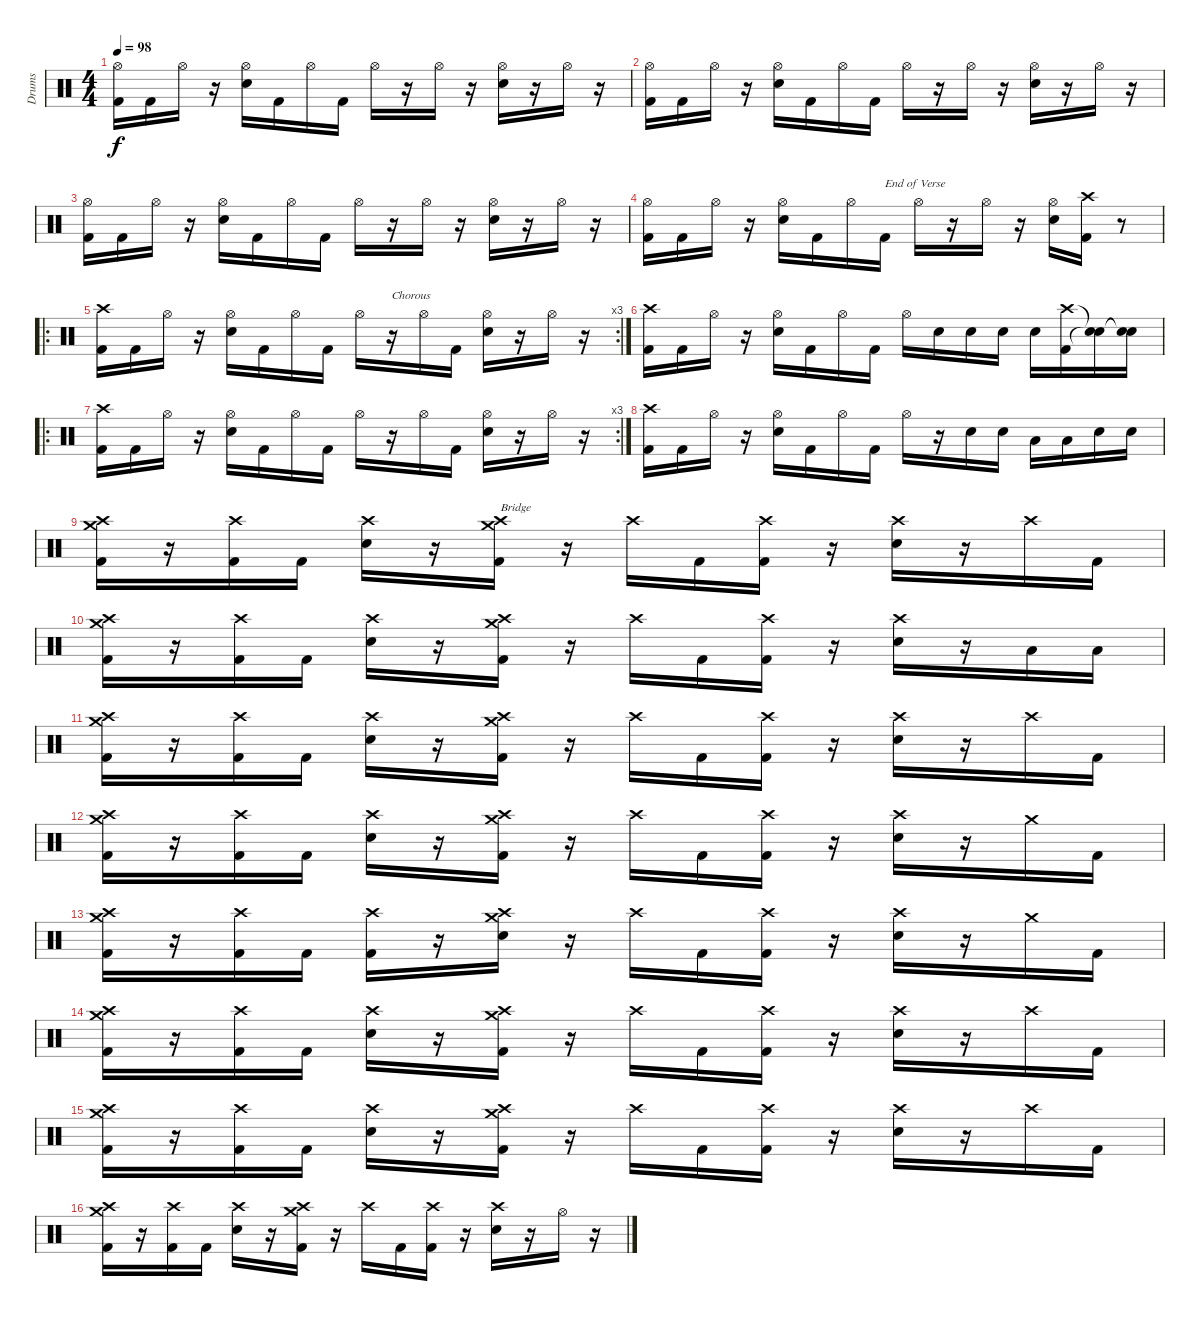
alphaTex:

\track ("Drums" "Drums") {instrument percussion}
\staff {score}
\articulation defaults
\ts (4 4)
\tempo 98
\clef neutral
\ks c
("Hi-Hat (open)" "Kick (hit) 2").16{dy f} "Kick (hit) 2".16 "Hi-Hat (open)".16 r.16 ("Hi-Hat (open)" "Snare (hit) 2").16 "Kick (hit) 2".16 "Hi-Hat (open)".16 "Kick (hit) 2".16 "Hi-Hat (open)".16 r.16 "Hi-Hat (open)".16 r.16 ("Hi-Hat (open)" "Snare (hit) 2").16 r.16 "Hi-Hat (open)".16 r.16 |
("Hi-Hat (open)" "Kick (hit) 2").16 "Kick (hit) 2".16 "Hi-Hat (open)".16 r.16 ("Hi-Hat (open)" "Snare (hit) 2").16 "Kick (hit) 2".16 "Hi-Hat (open)".16 "Kick (hit) 2".16 "Hi-Hat (open)".16 r.16 "Hi-Hat (open)".16 r.16 ("Hi-Hat (open)" "Snare (hit) 2").16 r.16 "Hi-Hat (open)".16 r.16 |
("Hi-Hat (open)" "Kick (hit) 2").16 "Kick (hit) 2".16 "Hi-Hat (open)".16 r.16 ("Hi-Hat (open)" "Snare (hit) 2").16 "Kick (hit) 2".16 "Hi-Hat (open)".16 "Kick (hit) 2".16 "Hi-Hat (open)".16 r.16 "Hi-Hat (open)".16 r.16 ("Hi-Hat (open)" "Snare (hit) 2").16 r.16 "Hi-Hat (open)".16 r.16 |
("Hi-Hat (open)" "Kick (hit) 2").16 "Kick (hit) 2".16 "Hi-Hat (open)".16 r.16 ("Hi-Hat (open)" "Snare (hit) 2").16 "Kick (hit) 2".16 "Hi-Hat (open)".16 "Kick (hit) 2".16{txt "End of Verse"} "Hi-Hat (open)".16 r.16 "Hi-Hat (open)".16 r.16 ("Hi-Hat (open)" "Snare (hit) 2").16 ("Crash high (hit)" "Kick (hit) 2").16 r.8 |
\ro
\rc 3
("Crash high (hit)" "Kick (hit) 2").16 "Kick (hit) 2".16 "Hi-Hat (open)".16 r.16 ("Hi-Hat (open)" "Snare (hit) 2").16 "Kick (hit) 2".16 "Hi-Hat (open)".16 "Kick (hit) 2".16 "Hi-Hat (open)".16 r.16{txt "Chorous"} "Hi-Hat (open)".16 "Kick (hit) 2".16 ("Hi-Hat (open)" "Snare (hit) 2").16 r.16 "Hi-Hat (open)".16 r.16 |
("Crash high (hit)" "Kick (hit) 2").16 "Kick (hit) 2".16 "Hi-Hat (open)".16 r.16 ("Hi-Hat (open)" "Snare (hit) 2").16 "Kick (hit) 2".16 "Hi-Hat (open)".16 "Kick (hit) 2".16 "Hi-Hat (open)".16 "Snare (hit) 2".16 "Snare (hit) 2".16 "Snare (hit) 2".16 "Snare (hit) 2".16 ("Crash high (hit)" "Kick (hit) 2").16 ("Snare (hit)"{t} "Snare (hit)"{t}).16 ("Snare (hit)"{t} "Snare (hit)"{t}).16 |
\ro
\rc 3
("Crash high (hit)" "Kick (hit) 2").16 "Kick (hit) 2".16 "Hi-Hat (open)".16 r.16 ("Hi-Hat (open)" "Snare (hit) 2").16 "Kick (hit) 2".16 "Hi-Hat (open)".16 "Kick (hit) 2".16 "Hi-Hat (open)".16 r.16 "Hi-Hat (open)".16 "Kick (hit) 2".16 ("Hi-Hat (open)" "Snare (hit) 2").16 r.16 "Hi-Hat (open)".16 r.16 |
("Crash high (hit)" "Kick (hit) 2").16 "Kick (hit) 2".16 "Hi-Hat (open)".16 r.16 ("Hi-Hat (open)" "Snare (hit) 2").16 "Kick (hit) 2".16 "Hi-Hat (open)".16 "Kick (hit) 2".16 "Hi-Hat (open)".16 r.16 "Snare (hit) 2".16 "Snare (hit) 2".16 "Low Tom (hit)".16 "Low Tom (hit)".16 "Snare (hit) 2".16 "Snare (hit) 2".16 |
("Crash high (hit)" "Crash medium (hit)" "Kick (hit) 2").16 r.16 ("Crash high (hit)" "Kick (hit) 2").16 "Kick (hit) 2".16 ("Crash high (hit)" "Snare (hit) 2").16 r.16 ("Crash high (hit)" "Crash medium (hit)" "Kick (hit) 2").16{txt "Bridge"} r.16 "Crash high (hit)".16 "Kick (hit) 2".16 ("Crash high (hit)" "Kick (hit) 2").16 r.16 ("Crash high (hit)" "Snare (hit) 2").16 r.16 "Crash high (hit)".16 "Kick (hit) 2".16 |
("Crash high (hit)" "Crash medium (hit)" "Kick (hit) 2").16 r.16 ("Crash high (hit)" "Kick (hit) 2").16 "Kick (hit) 2".16 ("Crash high (hit)" "Snare (hit) 2").16 r.16 ("Crash high (hit)" "Crash medium (hit)" "Kick (hit) 2").16 r.16 "Crash high (hit)".16 "Kick (hit) 2".16 ("Crash high (hit)" "Kick (hit) 2").16 r.16 ("Crash high (hit)" "Snare (hit) 2").16 r.16 "Low Tom (hit)".16 "Low Tom (hit)".16 |
("Crash high (hit)" "Crash medium (hit)" "Kick (hit) 2").16 r.16 ("Crash high (hit)" "Kick (hit) 2").16 "Kick (hit) 2".16 ("Crash high (hit)" "Snare (hit) 2").16 r.16 ("Crash high (hit)" "Crash medium (hit)" "Kick (hit) 2").16 r.16 "Crash high (hit)".16 "Kick (hit) 2".16 ("Crash high (hit)" "Kick (hit) 2").16 r.16 ("Crash high (hit)" "Snare (hit) 2").16 r.16 "Crash high (hit)".16 "Kick (hit) 2".16 |
("Crash high (hit)" "Crash medium (hit)" "Kick (hit) 2").16 r.16 ("Crash high (hit)" "Kick (hit) 2").16 "Kick (hit) 2".16 ("Crash high (hit)" "Snare (hit) 2").16 r.16 ("Crash high (hit)" "Crash medium (hit)" "Kick (hit) 2").16 r.16 "Crash high (hit)".16 "Kick (hit) 2".16 ("Crash high (hit)" "Kick (hit) 2").16 r.16 ("Crash high (hit)" "Snare (hit) 2").16 r.16 "Crash medium (hit)".16 "Kick (hit) 2".16 |
("Crash high (hit)" "Crash medium (hit)" "Kick (hit) 2").16 r.16 ("Crash high (hit)" "Kick (hit) 2").16 "Kick (hit) 2".16 ("Crash high (hit)" "Kick (hit) 2").16 r.16 ("Crash high (hit)" "Crash medium (hit)" "Snare (hit) 2").16 r.16 "Crash high (hit)".16 "Kick (hit) 2".16 ("Crash high (hit)" "Kick (hit) 2").16 r.16 ("Crash high (hit)" "Snare (hit) 2").16 r.16 "Crash medium (hit)".16 "Kick (hit) 2".16 |
("Crash high (hit)" "Crash medium (hit)" "Kick (hit) 2").16 r.16 ("Crash high (hit)" "Kick (hit) 2").16 "Kick (hit) 2".16 ("Crash high (hit)" "Snare (hit) 2").16 r.16 ("Crash high (hit)" "Crash medium (hit)" "Kick (hit) 2").16 r.16 "Crash high (hit)".16 "Kick (hit) 2".16 ("Crash high (hit)" "Kick (hit) 2").16 r.16 ("Crash high (hit)" "Snare (hit) 2").16 r.16 "Crash high (hit)".16 "Kick (hit) 2".16 |
("Crash high (hit)" "Crash medium (hit)" "Kick (hit) 2").16 r.16 ("Crash high (hit)" "Kick (hit) 2").16 "Kick (hit) 2".16 ("Crash high (hit)" "Snare (hit) 2").16 r.16 ("Crash high (hit)" "Crash medium (hit)" "Kick (hit) 2").16 r.16 "Crash high (hit)".16 "Kick (hit) 2".16 ("Crash high (hit)" "Kick (hit) 2").16 r.16 ("Crash high (hit)" "Snare (hit) 2").16 r.16 "Crash high (hit)".16 "Kick (hit) 2".16 |
("Crash high (hit)" "Crash medium (hit)" "Kick (hit) 2").16 r.16 ("Crash high (hit)" "Kick (hit) 2").16 "Kick (hit) 2".16 ("Crash high (hit)" "Snare (hit) 2").16 r.16 ("Crash high (hit)" "Crash medium (hit)" "Kick (hit) 2").16 r.16 "Crash high (hit)".16 "Kick (hit) 2".16 ("Crash high (hit)" "Kick (hit) 2").16 r.16 ("Crash high (hit)" "Snare (hit) 2").16 r.16 "Hi-Hat (open)".16 r.16
